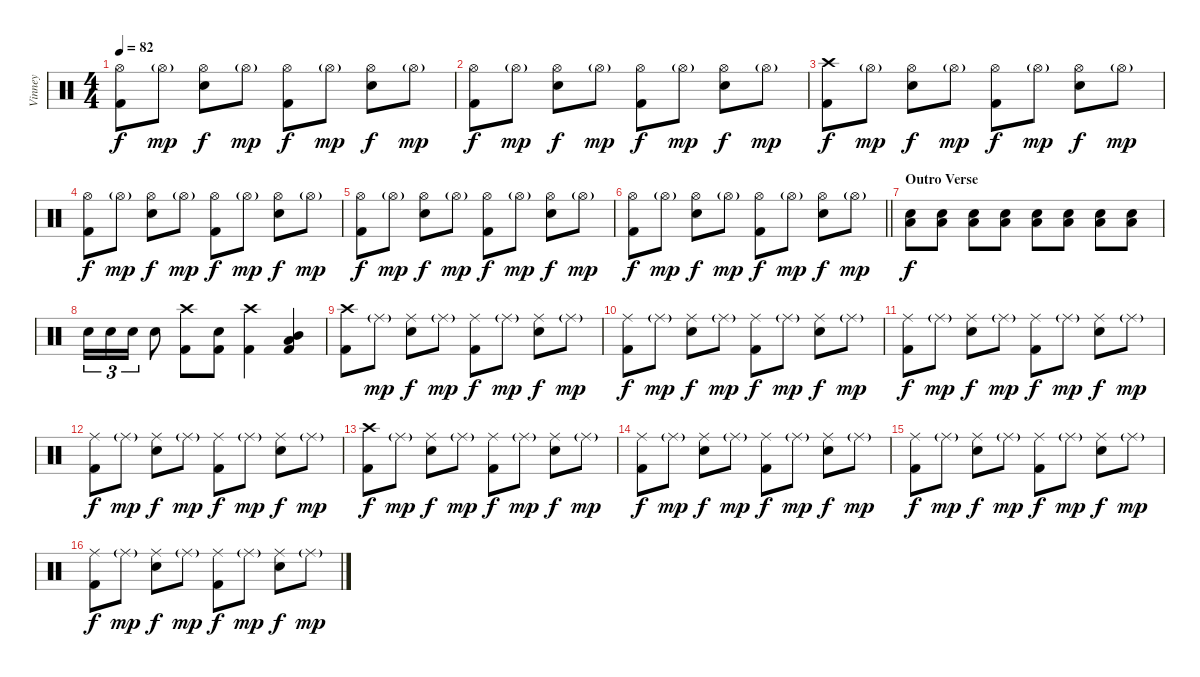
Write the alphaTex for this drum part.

\track ("Vinney" "Vinney") {instrument percussion}
\staff {score}
\articulation defaults
\ts (4 4)
\tempo 82
\clef neutral
\ks c
("Hi-Hat (open)" "Kick (hit) 2").8{dy f} "Hi-Hat (open)"{g}.8{dy mp} ("Hi-Hat (open)" "Electric Snare (hit)").8{dy f} "Hi-Hat (open)"{g}.8{dy mp} ("Hi-Hat (open)" "Kick (hit) 2").8{dy f} "Hi-Hat (open)"{g}.8{dy mp} ("Hi-Hat (open)" "Electric Snare (hit)").8{dy f} "Hi-Hat (open)"{g}.8{dy mp} |
("Hi-Hat (open)" "Kick (hit) 2").8{dy f} "Hi-Hat (open)"{g}.8{dy mp} ("Hi-Hat (open)" "Electric Snare (hit)").8{dy f} "Hi-Hat (open)"{g}.8{dy mp} ("Hi-Hat (open)" "Kick (hit) 2").8{dy f} "Hi-Hat (open)"{g}.8{dy mp} ("Hi-Hat (open)" "Electric Snare (hit)").8{dy f} "Hi-Hat (open)"{g}.8{dy mp} |
("Crash high (hit)" "Kick (hit) 2").8{dy f} "Hi-Hat (open)"{g}.8{dy mp} ("Hi-Hat (open)" "Electric Snare (hit)").8{dy f} "Hi-Hat (open)"{g}.8{dy mp} ("Hi-Hat (open)" "Kick (hit) 2").8{dy f} "Hi-Hat (open)"{g}.8{dy mp} ("Hi-Hat (open)" "Electric Snare (hit)").8{dy f} "Hi-Hat (open)"{g}.8{dy mp} |
("Hi-Hat (open)" "Kick (hit) 2").8{dy f} "Hi-Hat (open)"{g}.8{dy mp} ("Hi-Hat (open)" "Electric Snare (hit)").8{dy f} "Hi-Hat (open)"{g}.8{dy mp} ("Hi-Hat (open)" "Kick (hit) 2").8{dy f} "Hi-Hat (open)"{g}.8{dy mp} ("Hi-Hat (open)" "Electric Snare (hit)").8{dy f} "Hi-Hat (open)"{g}.8{dy mp} |
("Hi-Hat (open)" "Kick (hit) 2").8{dy f} "Hi-Hat (open)"{g}.8{dy mp} ("Hi-Hat (open)" "Electric Snare (hit)").8{dy f} "Hi-Hat (open)"{g}.8{dy mp} ("Hi-Hat (open)" "Kick (hit) 2").8{dy f} "Hi-Hat (open)"{g}.8{dy mp} ("Hi-Hat (open)" "Electric Snare (hit)").8{dy f} "Hi-Hat (open)"{g}.8{dy mp} |
\barLineRight lightlight
("Hi-Hat (open)" "Kick (hit) 2").8{dy f} "Hi-Hat (open)"{g}.8{dy mp} ("Hi-Hat (open)" "Electric Snare (hit)").8{dy f} "Hi-Hat (open)"{g}.8{dy mp} ("Hi-Hat (open)" "Kick (hit) 2").8{dy f} "Hi-Hat (open)"{g}.8{dy mp} ("Hi-Hat (open)" "Electric Snare (hit)").8{dy f} "Hi-Hat (open)"{g}.8{dy mp} |
\section ("" "Outro Verse")
("Electric Snare (hit)" "Low Tom (hit)").8{dy f} ("Electric Snare (hit)" "Low Tom (hit)").8 ("Electric Snare (hit)" "Low Tom (hit)").8 ("Electric Snare (hit)" "Low Tom (hit)").8 ("Electric Snare (hit)" "Low Tom (hit)").8 ("Electric Snare (hit)" "Low Tom (hit)").8 ("Electric Snare (hit)" "Low Tom (hit)").8 ("Electric Snare (hit)" "Low Tom (hit)").8 |
"Electric Snare (hit)".16{tu (3 2)} "Electric Snare (hit)".16{tu (3 2)} "Electric Snare (hit)".16{tu (3 2)} "Electric Snare (hit)".8 ("Crash high (hit)" "Kick (hit) 2").8 ("Electric Snare (hit)" "Kick (hit) 2").8 ("Crash high (hit)" "Kick (hit) 2").4 ("Mid Tom (hit)" "Low Tom (hit)" "Kick (hit) 2").4 |
("Crash high (hit)" "Kick (hit) 2").8 "Ride (middle)"{g}.8{dy mp} ("Ride (middle)" "Electric Snare (hit)").8{dy f} "Ride (middle)"{g}.8{dy mp} ("Ride (middle)" "Kick (hit) 2").8{dy f} "Ride (middle)"{g}.8{dy mp} ("Ride (middle)" "Electric Snare (hit)").8{dy f} "Ride (middle)"{g}.8{dy mp} |
("Ride (middle)" "Kick (hit) 2").8{dy f} "Ride (middle)"{g}.8{dy mp} ("Ride (middle)" "Electric Snare (hit)").8{dy f} "Ride (middle)"{g}.8{dy mp} ("Ride (middle)" "Kick (hit) 2").8{dy f} "Ride (middle)"{g}.8{dy mp} ("Ride (middle)" "Electric Snare (hit)").8{dy f} "Ride (middle)"{g}.8{dy mp} |
("Ride (middle)" "Kick (hit) 2").8{dy f} "Ride (middle)"{g}.8{dy mp} ("Ride (middle)" "Electric Snare (hit)").8{dy f} "Ride (middle)"{g}.8{dy mp} ("Ride (middle)" "Kick (hit) 2").8{dy f} "Ride (middle)"{g}.8{dy mp} ("Ride (middle)" "Electric Snare (hit)").8{dy f} "Ride (middle)"{g}.8{dy mp} |
("Ride (middle)" "Kick (hit) 2").8{dy f} "Ride (middle)"{g}.8{dy mp} ("Ride (middle)" "Electric Snare (hit)").8{dy f} "Ride (middle)"{g}.8{dy mp} ("Ride (middle)" "Kick (hit) 2").8{dy f} "Ride (middle)"{g}.8{dy mp} ("Ride (middle)" "Electric Snare (hit)").8{dy f} "Ride (middle)"{g}.8{dy mp} |
("Crash high (hit)" "Kick (hit) 2").8{dy f} "Ride (middle)"{g}.8{dy mp} ("Ride (middle)" "Electric Snare (hit)").8{dy f} "Ride (middle)"{g}.8{dy mp} ("Ride (middle)" "Kick (hit) 2").8{dy f} "Ride (middle)"{g}.8{dy mp} ("Ride (middle)" "Electric Snare (hit)").8{dy f} "Ride (middle)"{g}.8{dy mp} |
("Ride (middle)" "Kick (hit) 2").8{dy f} "Ride (middle)"{g}.8{dy mp} ("Ride (middle)" "Electric Snare (hit)").8{dy f} "Ride (middle)"{g}.8{dy mp} ("Ride (middle)" "Kick (hit) 2").8{dy f} "Ride (middle)"{g}.8{dy mp} ("Ride (middle)" "Electric Snare (hit)").8{dy f} "Ride (middle)"{g}.8{dy mp} |
("Ride (middle)" "Kick (hit) 2").8{dy f} "Ride (middle)"{g}.8{dy mp} ("Ride (middle)" "Electric Snare (hit)").8{dy f} "Ride (middle)"{g}.8{dy mp} ("Ride (middle)" "Kick (hit) 2").8{dy f} "Ride (middle)"{g}.8{dy mp} ("Ride (middle)" "Electric Snare (hit)").8{dy f} "Ride (middle)"{g}.8{dy mp} |
("Ride (middle)" "Kick (hit) 2").8{dy f} "Ride (middle)"{g}.8{dy mp} ("Ride (middle)" "Electric Snare (hit)").8{dy f} "Ride (middle)"{g}.8{dy mp} ("Ride (middle)" "Kick (hit) 2").8{dy f} "Ride (middle)"{g}.8{dy mp} ("Ride (middle)" "Electric Snare (hit)").8{dy f} "Ride (middle)"{g}.8{dy mp}
